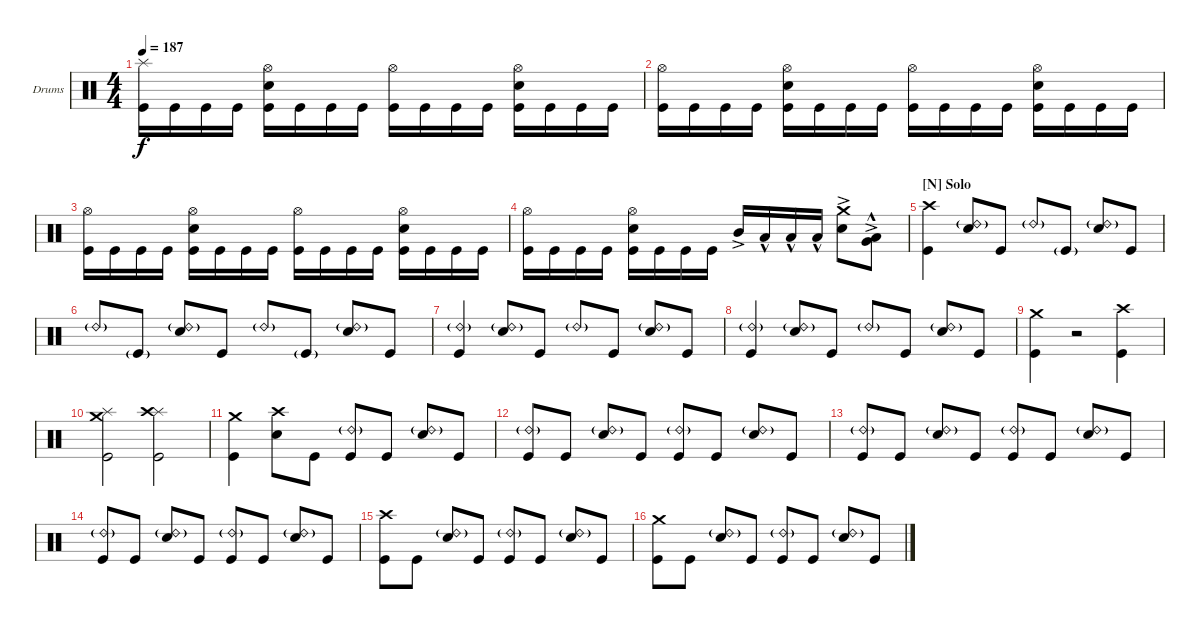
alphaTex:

\defaultSystemsLayout 4
\bracketExtendMode groupsimilarinstruments
\firstSystemTrackNameOrientation horizontal
\otherSystemsTrackNameOrientation horizontal
\track ("Drumkit" "Drums") {instrument percussion}
\staff {score}
\articulation defaults
\ts (4 4)
\tempo 187
\clef neutral
\ks c
("Splash (hit)" "Kick (hit)").16{dy f} "Kick (hit)".16 "Kick (hit)".16 "Kick (hit)".16 ("Snare (hit) 2" "Hi-Hat (open)" "Kick (hit)").16 "Kick (hit)".16 "Kick (hit)".16 "Kick (hit)".16 ("Kick (hit)" "Hi-Hat (open)").16 "Kick (hit)".16 "Kick (hit)".16 "Kick (hit)".16 ("Snare (hit) 2" "Hi-Hat (open)" "Kick (hit)").16 "Kick (hit)".16 "Kick (hit)".16 "Kick (hit)".16 |
("Kick (hit)" "Hi-Hat (open)").16 "Kick (hit)".16 "Kick (hit)".16 "Kick (hit)".16 ("Snare (hit) 2" "Hi-Hat (open)" "Kick (hit)").16 "Kick (hit)".16 "Kick (hit)".16 "Kick (hit)".16 ("Kick (hit)" "Hi-Hat (open)").16 "Kick (hit)".16 "Kick (hit)".16 "Kick (hit)".16 ("Snare (hit) 2" "Hi-Hat (open)" "Kick (hit)").16 "Kick (hit)".16 "Kick (hit)".16 "Kick (hit)".16 |
("Kick (hit)" "Hi-Hat (open)").16 "Kick (hit)".16 "Kick (hit)".16 "Kick (hit)".16 ("Snare (hit) 2" "Hi-Hat (open)" "Kick (hit)").16 "Kick (hit)".16 "Kick (hit)".16 "Kick (hit)".16 ("Kick (hit)" "Hi-Hat (open)").16 "Kick (hit)".16 "Kick (hit)".16 "Kick (hit)".16 ("Snare (hit) 2" "Hi-Hat (open)" "Kick (hit)").16 "Kick (hit)".16 "Kick (hit)".16 "Kick (hit)".16 |
("Kick (hit)" "Hi-Hat (open)").16 "Kick (hit)".16 "Kick (hit)".16 "Kick (hit)".16 ("Snare (hit) 2" "Hi-Hat (open)" "Kick (hit)").16 "Kick (hit)".16 "Kick (hit)".16 "Kick (hit)".16 "Mid Tom (hit)"{ac}.16 "Low Tom (hit)"{hac}.16 "Low Tom (hit)"{hac}.16 "Low Tom (hit)"{hac}.16 ("Snare (hit) 2"{ac} "Crash medium (hit)").8 ("Low Tom (hit)"{ac} "Very Low Tom (hit)"{hac}).8 |
\section ("N" "Solo")
("Crash high (hit)" "Kick (hit)").4 ("Snare (hit) 2" "Ride (bell) 2"{g}).8 "Kick (hit)".8 "Ride (bell) 2"{g}.8 "Kick (hit)"{g}.8 ("Snare (hit) 2" "Ride (bell) 2"{g}).8 "Kick (hit)".8 |
"Ride (bell) 2"{g}.8 "Kick (hit)"{g}.8 ("Snare (hit) 2" "Ride (bell) 2"{g}).8 "Kick (hit)".8 "Ride (bell) 2"{g}.8 "Kick (hit)"{g}.8 ("Snare (hit) 2" "Ride (bell) 2"{g}).8 "Kick (hit)".8 |
("Kick (hit)" "Ride (bell) 2"{g}).4 ("Snare (hit) 2" "Ride (bell) 2"{g}).8 "Kick (hit)".8 "Ride (bell) 2"{g}.8 "Kick (hit)".8 ("Snare (hit) 2" "Ride (bell) 2"{g}).8 "Kick (hit)".8 |
("Kick (hit)" "Ride (bell) 2"{g}).4 ("Snare (hit) 2" "Ride (bell) 2"{g}).8 "Kick (hit)".8 "Ride (bell) 2"{g}.8 "Kick (hit)".8 ("Snare (hit) 2" "Ride (bell) 2"{g}).8 "Kick (hit)".8 |
("Crash medium (hit)" "Kick (hit)").4 r.2 ("Kick (hit)" "Crash high (hit)").4 |
("Crash medium (hit)" "Kick (hit)" "Splash (hit)").2 ("Kick (hit)" "Splash (hit)" "Crash high (hit)").2 |
("Kick (hit)" "Crash medium (hit)").4 ("Snare (hit) 2" "Crash high (hit)").8 "Kick (hit)".8 ("Kick (hit)" "Ride (bell) 2"{g}).8 "Kick (hit)".8 ("Snare (hit) 2" "Ride (bell) 2"{g}).8 "Kick (hit)".8 |
("Kick (hit)" "Ride (bell) 2"{g}).8 "Kick (hit)".8 ("Snare (hit) 2" "Ride (bell) 2"{g}).8 "Kick (hit)".8 ("Kick (hit)" "Ride (bell) 2"{g}).8 "Kick (hit)".8 ("Snare (hit) 2" "Ride (bell) 2"{g}).8 "Kick (hit)".8 |
("Kick (hit)" "Ride (bell) 2"{g}).8 "Kick (hit)".8 ("Snare (hit) 2" "Ride (bell) 2"{g}).8 "Kick (hit)".8 ("Kick (hit)" "Ride (bell) 2"{g}).8 "Kick (hit)".8 ("Snare (hit) 2" "Ride (bell) 2"{g}).8 "Kick (hit)".8 |
("Kick (hit)" "Ride (bell) 2"{g}).8 "Kick (hit)".8 ("Snare (hit) 2" "Ride (bell) 2"{g}).8 "Kick (hit)".8 ("Kick (hit)" "Ride (bell) 2"{g}).8 "Kick (hit)".8 ("Snare (hit) 2" "Ride (bell) 2"{g}).8 "Kick (hit)".8 |
("Kick (hit)" "Crash high (hit)").8 "Kick (hit)".8 ("Snare (hit) 2" "Ride (bell) 2"{g}).8 "Kick (hit)".8 ("Kick (hit)" "Ride (bell) 2"{g}).8 "Kick (hit)".8 ("Snare (hit) 2" "Ride (bell) 2"{g}).8 "Kick (hit)".8 |
("Kick (hit)" "Crash medium (hit)").8 "Kick (hit)".8 ("Snare (hit) 2" "Ride (bell) 2"{g}).8 "Kick (hit)".8 ("Kick (hit)" "Ride (bell) 2"{g}).8 "Kick (hit)".8 ("Snare (hit) 2" "Ride (bell) 2"{g}).8 "Kick (hit)".8
